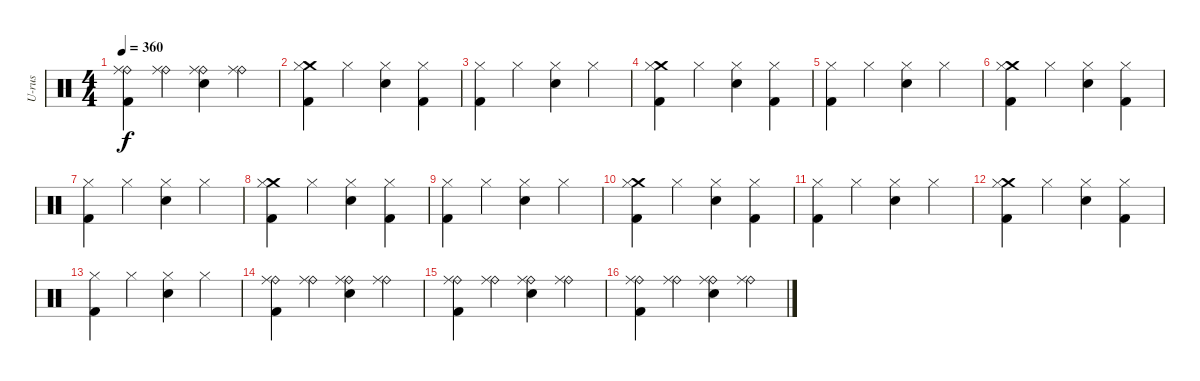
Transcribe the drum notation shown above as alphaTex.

\track ("U-rus" "U-rus") {instrument percussion}
\staff {score}
\articulation defaults
\ts (4 4)
\tempo 360
\clef neutral
\ks c
("Ride (bell)" "Ride (middle)" "Kick (hit) 2").4{dy f} ("Ride (bell)" "Ride (middle)").4 ("Ride (bell)" "Ride (middle)" "Snare (hit) 2").4 ("Ride (bell)" "Ride (middle)").4 |
("Crash medium (hit)" "Hi-Hat (closed)" "Kick (hit) 2").4 "Hi-Hat (closed)".4 ("Hi-Hat (closed)" "Snare (hit) 2").4 ("Hi-Hat (closed)" "Kick (hit) 2").4 |
("Hi-Hat (closed)" "Kick (hit) 2").4 "Hi-Hat (closed)".4 ("Hi-Hat (closed)" "Snare (hit) 2").4 "Hi-Hat (closed)".4 |
("Crash medium (hit)" "Hi-Hat (closed)" "Kick (hit) 2").4 "Hi-Hat (closed)".4 ("Hi-Hat (closed)" "Snare (hit) 2").4 ("Hi-Hat (closed)" "Kick (hit) 2").4 |
("Hi-Hat (closed)" "Kick (hit) 2").4 "Hi-Hat (closed)".4 ("Hi-Hat (closed)" "Snare (hit) 2").4 "Hi-Hat (closed)".4 |
("Crash medium (hit)" "Hi-Hat (closed)" "Kick (hit) 2").4 "Hi-Hat (closed)".4 ("Hi-Hat (closed)" "Snare (hit) 2").4 ("Hi-Hat (closed)" "Kick (hit) 2").4 |
("Hi-Hat (closed)" "Kick (hit) 2").4 "Hi-Hat (closed)".4 ("Hi-Hat (closed)" "Snare (hit) 2").4 "Hi-Hat (closed)".4 |
("Crash medium (hit)" "Hi-Hat (closed)" "Kick (hit) 2").4 "Hi-Hat (closed)".4 ("Hi-Hat (closed)" "Snare (hit) 2").4 ("Hi-Hat (closed)" "Kick (hit) 2").4 |
("Hi-Hat (closed)" "Kick (hit) 2").4 "Hi-Hat (closed)".4 ("Hi-Hat (closed)" "Snare (hit) 2").4 "Hi-Hat (closed)".4 |
("Crash medium (hit)" "Hi-Hat (closed)" "Kick (hit) 2").4 "Hi-Hat (closed)".4 ("Hi-Hat (closed)" "Snare (hit) 2").4 ("Hi-Hat (closed)" "Kick (hit) 2").4 |
("Hi-Hat (closed)" "Kick (hit) 2").4 "Hi-Hat (closed)".4 ("Hi-Hat (closed)" "Snare (hit) 2").4 "Hi-Hat (closed)".4 |
("Crash medium (hit)" "Hi-Hat (closed)" "Kick (hit) 2").4 "Hi-Hat (closed)".4 ("Hi-Hat (closed)" "Snare (hit) 2").4 ("Hi-Hat (closed)" "Kick (hit) 2").4 |
("Hi-Hat (closed)" "Kick (hit) 2").4 "Hi-Hat (closed)".4 ("Hi-Hat (closed)" "Snare (hit) 2").4 "Hi-Hat (closed)".4 |
("Ride (bell)" "Ride (middle)" "Kick (hit) 2").4 ("Ride (bell)" "Ride (middle)").4 ("Ride (bell)" "Ride (middle)" "Snare (hit) 2").4 ("Ride (bell)" "Ride (middle)").4 |
("Ride (bell)" "Ride (middle)" "Kick (hit) 2").4 ("Ride (bell)" "Ride (middle)").4 ("Ride (bell)" "Ride (middle)" "Snare (hit) 2").4 ("Ride (bell)" "Ride (middle)").4 |
("Ride (bell)" "Ride (middle)" "Kick (hit) 2").4 ("Ride (bell)" "Ride (middle)").4 ("Ride (bell)" "Ride (middle)" "Snare (hit) 2").4 ("Ride (bell)" "Ride (middle)").4
